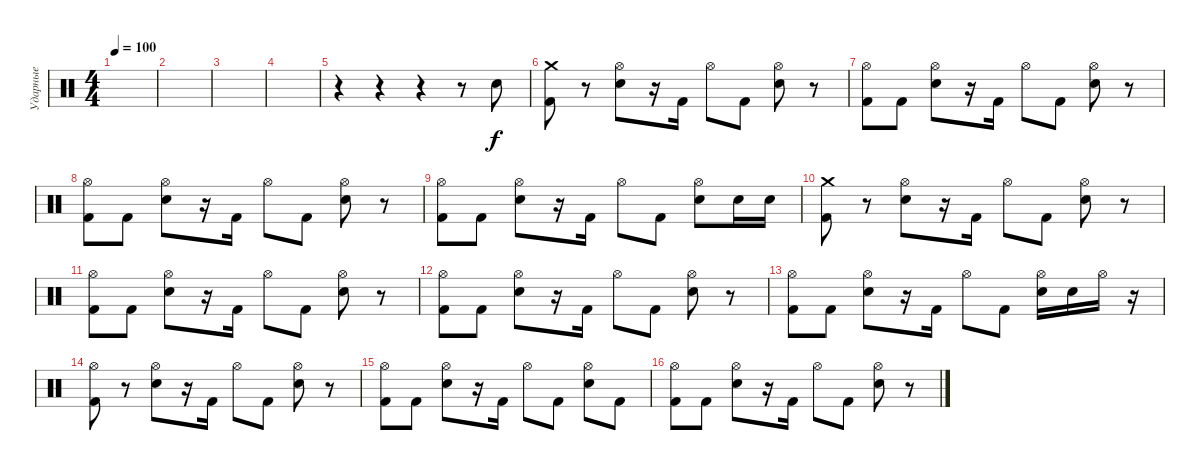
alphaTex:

\track ("Ударные" "Ударные") {instrument percussion}
\staff {score}
\articulation defaults
\ts (4 4)
\tempo 100
\clef neutral
\ks c
|
|
|
|
r.4 r.4 r.4 r.8 "Electric Snare (hit)".8 |
("Crash medium (hit)" "Kick (hit) 2").8 r.8 ("Hi-Hat (open)" "Electric Snare (hit)").8 r.16 "Kick (hit) 2".16 "Hi-Hat (open)".8 "Kick (hit) 2".8 ("Hi-Hat (open)" "Electric Snare (hit)").8 r.8 |
("Hi-Hat (open)" "Kick (hit) 2").8 "Kick (hit) 2".8 ("Hi-Hat (open)" "Electric Snare (hit)").8 r.16 "Kick (hit) 2".16 "Hi-Hat (open)".8 "Kick (hit) 2".8 ("Hi-Hat (open)" "Electric Snare (hit)").8 r.8 |
("Hi-Hat (open)" "Kick (hit) 2").8 "Kick (hit) 2".8 ("Hi-Hat (open)" "Electric Snare (hit)").8 r.16 "Kick (hit) 2".16 "Hi-Hat (open)".8 "Kick (hit) 2".8 ("Hi-Hat (open)" "Electric Snare (hit)").8 r.8 |
("Hi-Hat (open)" "Kick (hit) 2").8 "Kick (hit) 2".8 ("Hi-Hat (open)" "Electric Snare (hit)").8 r.16 "Kick (hit) 2".16 "Hi-Hat (open)".8 "Kick (hit) 2".8 ("Hi-Hat (open)" "Electric Snare (hit)").8 "Electric Snare (hit)".16 "Electric Snare (hit)".16 |
("Crash medium (hit)" "Kick (hit) 2").8 r.8 ("Hi-Hat (open)" "Electric Snare (hit)").8 r.16 "Kick (hit) 2".16 "Hi-Hat (open)".8 "Kick (hit) 2".8 ("Hi-Hat (open)" "Electric Snare (hit)").8 r.8 |
("Hi-Hat (open)" "Kick (hit) 2").8 "Kick (hit) 2".8 ("Hi-Hat (open)" "Electric Snare (hit)").8 r.16 "Kick (hit) 2".16 "Hi-Hat (open)".8 "Kick (hit) 2".8 ("Hi-Hat (open)" "Electric Snare (hit)").8 r.8 |
("Hi-Hat (open)" "Kick (hit) 2").8 "Kick (hit) 2".8 ("Hi-Hat (open)" "Electric Snare (hit)").8 r.16 "Kick (hit) 2".16 "Hi-Hat (open)".8 "Kick (hit) 2".8 ("Hi-Hat (open)" "Electric Snare (hit)").8 r.8 |
("Hi-Hat (open)" "Kick (hit) 2").8 "Kick (hit) 2".8 ("Hi-Hat (open)" "Electric Snare (hit)").8 r.16 "Kick (hit) 2".16 "Hi-Hat (open)".8 "Kick (hit) 2".8 ("Hi-Hat (open)" "Electric Snare (hit)").16 "Electric Snare (hit)".16 "Hi-Hat (open)".16 r.16 |
("Hi-Hat (open)" "Kick (hit) 2").8 r.8 ("Hi-Hat (open)" "Electric Snare (hit)").8 r.16 "Kick (hit) 2".16 "Hi-Hat (open)".8 "Kick (hit) 2".8 ("Hi-Hat (open)" "Electric Snare (hit)").8 r.8 |
("Hi-Hat (open)" "Kick (hit) 2").8 "Kick (hit) 2".8 ("Hi-Hat (open)" "Electric Snare (hit)").8 r.16 "Kick (hit) 2".16 "Hi-Hat (open)".8 "Kick (hit) 2".8 ("Hi-Hat (open)" "Electric Snare (hit)").8 "Kick (hit) 2".8 |
("Hi-Hat (open)" "Kick (hit) 2").8 "Kick (hit) 2".8 ("Hi-Hat (open)" "Electric Snare (hit)").8 r.16 "Kick (hit) 2".16 "Hi-Hat (open)".8 "Kick (hit) 2".8 ("Hi-Hat (open)" "Electric Snare (hit)").8 r.8
